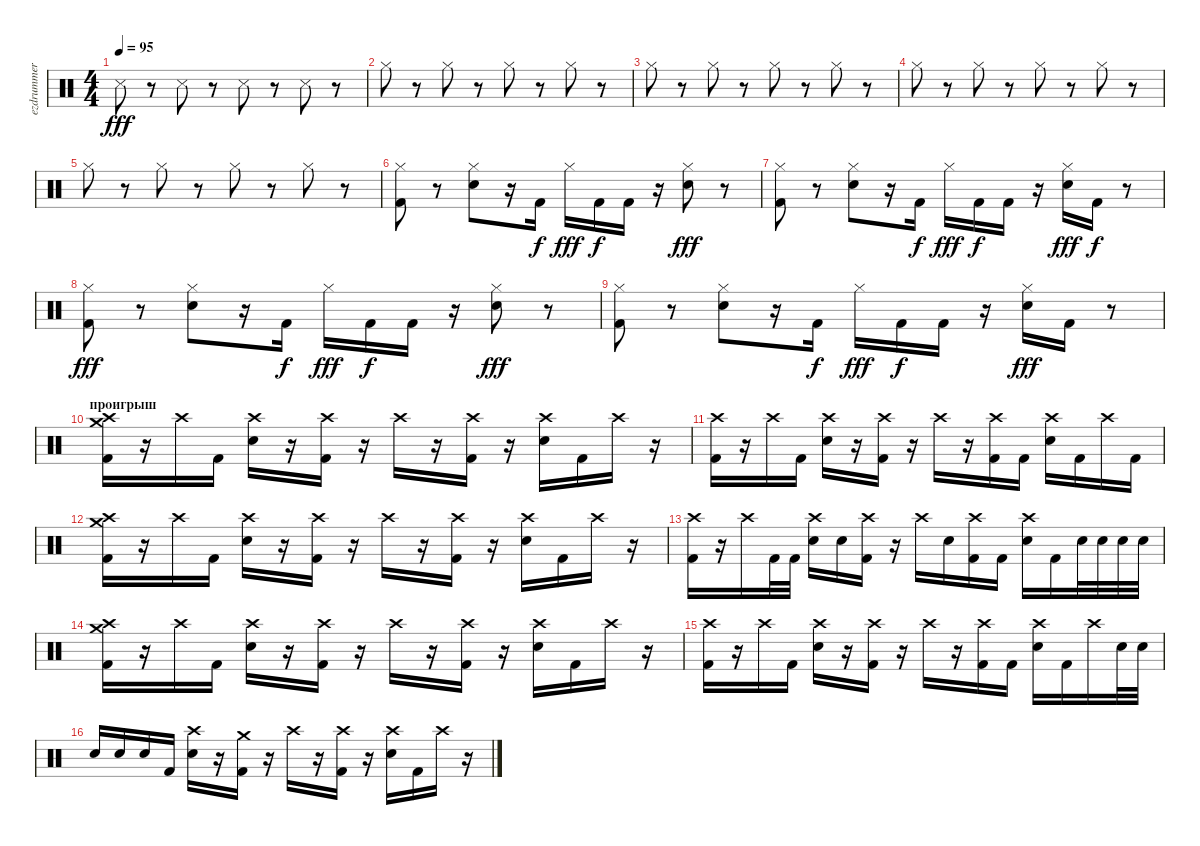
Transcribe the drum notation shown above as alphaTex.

\track ("ezdrummer 01" "ezdrummer ") {instrument percussion}
\staff {score}
\articulation defaults
\ts (4 4)
\tempo 95
\clef neutral
\ks c "Snare (side stick) 3".8{dy fff}
r.8 "Snare (side stick) 3".8 r.8 "Snare (side stick) 3".8 r.8 "Snare (side stick) 3".8 r.8 |
"Hi-Hat (closed)".8 r.8 "Hi-Hat (closed)".8 r.8 "Hi-Hat (closed)".8 r.8 "Hi-Hat (closed)".8 r.8 |
"Hi-Hat (closed)".8 r.8 "Hi-Hat (closed)".8 r.8 "Hi-Hat (closed)".8 r.8 "Hi-Hat (closed)".8 r.8 |
"Hi-Hat (closed)".8 r.8 "Hi-Hat (closed)".8 r.8 "Hi-Hat (closed)".8 r.8 "Hi-Hat (closed)".8 r.8 |
"Hi-Hat (closed)".8 r.8 "Hi-Hat (closed)".8 r.8 "Hi-Hat (closed)".8 r.8 "Hi-Hat (closed)".8 r.8 |
("Hi-Hat (closed)" "Kick (hit) 2").8 r.8 ("Hi-Hat (closed)" "Snare (hit) 2").8 r.16 "Kick (hit) 2".16{dy f} "Hi-Hat (closed)".16{dy fff} "Kick (hit) 2".16{dy f} "Kick (hit) 2".16 r.16 ("Hi-Hat (closed)" "Snare (hit) 2").8{dy fff} r.8 |
("Hi-Hat (closed)" "Kick (hit) 2").8 r.8 ("Hi-Hat (closed)" "Snare (hit) 2").8 r.16 "Kick (hit) 2".16{dy f} "Hi-Hat (closed)".16{dy fff} "Kick (hit) 2".16{dy f} "Kick (hit) 2".16 r.16 ("Hi-Hat (closed)" "Snare (hit) 2").16{dy fff} "Kick (hit) 2".16{dy f} r.8 |
("Kick (hit) 2" "Hi-Hat (closed)").8{dy fff} r.8 ("Snare (hit) 2" "Hi-Hat (closed)").8 r.16 "Kick (hit) 2".16{dy f} "Hi-Hat (closed)".16{dy fff} "Kick (hit) 2".16{dy f} "Kick (hit) 2".16 r.16 ("Snare (hit) 2" "Hi-Hat (closed)").8{dy fff} r.8 |
("Kick (hit) 2" "Hi-Hat (closed)").8 r.8 ("Snare (hit) 2" "Hi-Hat (closed)").8 r.16 "Kick (hit) 2".16{dy f} "Hi-Hat (closed)".16{dy fff} "Kick (hit) 2".16{dy f} "Kick (hit) 2".16 r.16 ("Snare (hit) 2" "Hi-Hat (closed)").16{dy fff} "Kick (hit) 2".16 r.8 |
\section ("" "проигрыш")
("Kick (hit) 2" "Crash high (hit)" "Crash medium (hit)").16 r.16 "Crash high (hit)".16 "Kick (hit) 2".16 ("Snare (hit) 2" "Crash high (hit)").16 r.16 ("Kick (hit) 2" "Crash high (hit)").16 r.16 "Crash high (hit)".16 r.16 ("Kick (hit) 2" "Crash high (hit)").16 r.16 ("Snare (hit) 2" "Crash high (hit)").16 "Kick (hit) 2".16 "Crash high (hit)".16 r.16 |
("Kick (hit) 2" "Crash high (hit)").16 r.16 "Crash high (hit)".16 "Kick (hit) 2".16 ("Snare (hit) 2" "Crash high (hit)").16 r.16 ("Kick (hit) 2" "Crash high (hit)").16 r.16 "Crash high (hit)".16 r.16 ("Kick (hit) 2" "Crash high (hit)").16 "Kick (hit) 2".16 ("Snare (hit) 2" "Crash high (hit)").16 "Kick (hit) 2".16 "Crash high (hit)".16 "Kick (hit) 2".16 |
("Kick (hit) 2" "Crash high (hit)" "Crash medium (hit)").16 r.16 "Crash high (hit)".16 "Kick (hit) 2".16 ("Snare (hit) 2" "Crash high (hit)").16 r.16 ("Kick (hit) 2" "Crash high (hit)").16 r.16 "Crash high (hit)".16 r.16 ("Kick (hit) 2" "Crash high (hit)").16 r.16 ("Snare (hit) 2" "Crash high (hit)").16 "Kick (hit) 2".16 "Crash high (hit)".16 r.16 |
("Kick (hit) 2" "Crash high (hit)").16 r.16 "Crash high (hit)".16 "Kick (hit) 2".32 "Kick (hit) 2".32 ("Snare (hit) 2" "Crash high (hit)").16 "Snare (hit) 2".16 ("Kick (hit) 2" "Crash high (hit)").16 r.16 "Crash high (hit)".16 "Snare (hit) 2".16 ("Kick (hit) 2" "Crash high (hit)").16 "Kick (hit) 2".16 ("Snare (hit) 2" "Crash high (hit)").16 "Kick (hit) 2".16 "Snare (hit) 2".32 "Snare (hit) 2".32 "Snare (hit) 2".32 "Snare (hit) 2".32 |
("Kick (hit) 2" "Crash high (hit)" "Crash medium (hit)").16 r.16 "Crash high (hit)".16 "Kick (hit) 2".16 ("Snare (hit) 2" "Crash high (hit)").16 r.16 ("Kick (hit) 2" "Crash high (hit)").16 r.16 "Crash high (hit)".16 r.16 ("Kick (hit) 2" "Crash high (hit)").16 r.16 ("Snare (hit) 2" "Crash high (hit)").16 "Kick (hit) 2".16 "Crash high (hit)".16 r.16 |
("Kick (hit) 2" "Crash high (hit)").16 r.16 "Crash high (hit)".16 "Kick (hit) 2".16 ("Snare (hit) 2" "Crash high (hit)").16 r.16 ("Kick (hit) 2" "Crash high (hit)").16 r.16 "Crash high (hit)".16 r.16 ("Kick (hit) 2" "Crash high (hit)").16 "Kick (hit) 2".16 ("Snare (hit) 2" "Crash high (hit)").16 "Kick (hit) 2".16 "Crash high (hit)".16 "Snare (hit) 2".32 "Snare (hit) 2".32 |
"Snare (hit) 2".16 "Snare (hit) 2".16 "Snare (hit) 2".16 "Kick (hit) 2".16 ("Snare (hit) 2" "Crash high (hit)").16 r.16 ("Kick (hit) 2" "Crash medium (hit)").16 r.16 "Crash high (hit)".16 r.16 ("Kick (hit) 2" "Crash high (hit)").16 r.16 ("Snare (hit) 2" "Crash high (hit)").16 "Kick (hit) 2".16 "Crash high (hit)".16 r.16
